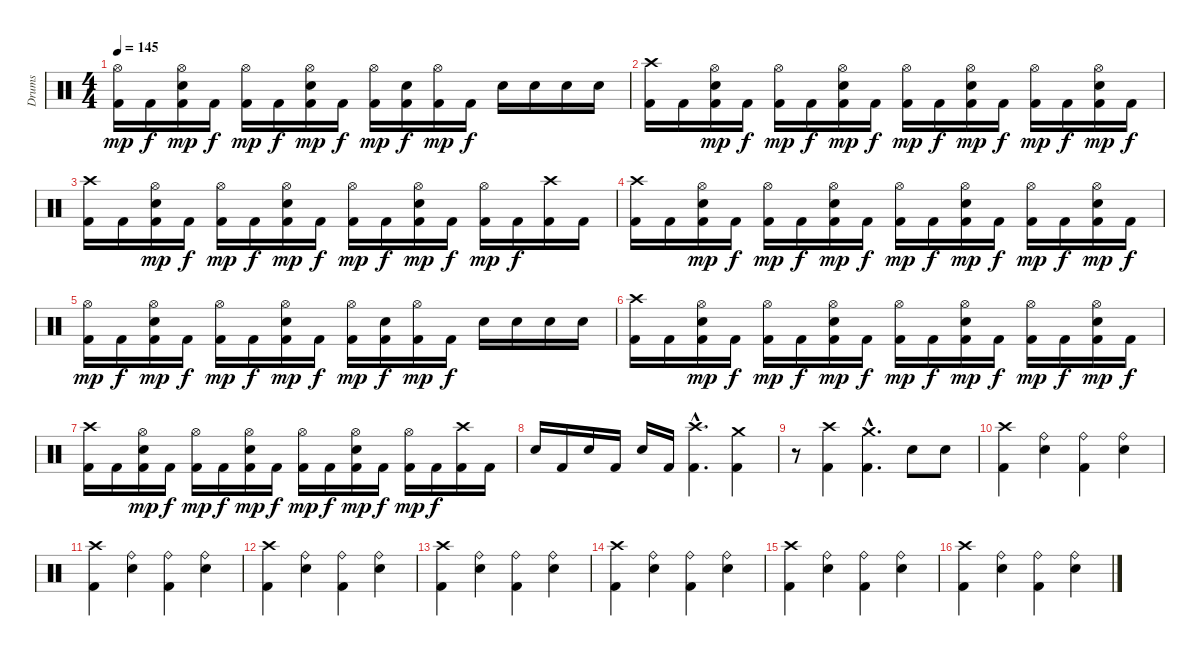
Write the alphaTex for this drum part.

\track ("Drums" "Drums") {instrument percussion}
\staff {score}
\articulation defaults
\ts (4 4)
\tempo 145
\clef neutral
\ks c
("Hi-Hat (open)" "Kick (hit) 2").16{dy mp} "Kick (hit) 2".16{dy f} ("Hi-Hat (open)" "Snare (hit) 2" "Kick (hit) 2").16{dy mp} "Kick (hit) 2".16{dy f} ("Hi-Hat (open)" "Kick (hit) 2").16{dy mp} "Kick (hit) 2".16{dy f} ("Hi-Hat (open)" "Snare (hit) 2" "Kick (hit) 2").16{dy mp} "Kick (hit) 2".16{dy f} ("Hi-Hat (open)" "Kick (hit) 2").16{dy mp} ("Snare (hit) 2" "Kick (hit) 2").16{dy f} ("Hi-Hat (open)" "Kick (hit) 2").16{dy mp} "Kick (hit) 2".16{dy f} "Snare (hit) 2".16 "Snare (hit) 2".16 "Snare (hit) 2".16 "Snare (hit) 2".16 |
("Crash high (hit)" "Kick (hit) 2").16 "Kick (hit) 2".16 ("Hi-Hat (open)" "Snare (hit) 2" "Kick (hit) 2").16{dy mp} "Kick (hit) 2".16{dy f} ("Hi-Hat (open)" "Kick (hit) 2").16{dy mp} "Kick (hit) 2".16{dy f} ("Hi-Hat (open)" "Snare (hit) 2" "Kick (hit) 2").16{dy mp} "Kick (hit) 2".16{dy f} ("Hi-Hat (open)" "Kick (hit) 2").16{dy mp} "Kick (hit) 2".16{dy f} ("Hi-Hat (open)" "Snare (hit) 2" "Kick (hit) 2").16{dy mp} "Kick (hit) 2".16{dy f} ("Hi-Hat (open)" "Kick (hit) 2").16{dy mp} "Kick (hit) 2".16{dy f} ("Hi-Hat (open)" "Snare (hit) 2" "Kick (hit) 2").16{dy mp} "Kick (hit) 2".16{dy f} |
("Crash high (hit)" "Kick (hit) 2").16 "Kick (hit) 2".16 ("Hi-Hat (open)" "Snare (hit) 2" "Kick (hit) 2").16{dy mp} "Kick (hit) 2".16{dy f} ("Hi-Hat (open)" "Kick (hit) 2").16{dy mp} "Kick (hit) 2".16{dy f} ("Hi-Hat (open)" "Snare (hit) 2" "Kick (hit) 2").16{dy mp} "Kick (hit) 2".16{dy f} ("Hi-Hat (open)" "Kick (hit) 2").16{dy mp} "Kick (hit) 2".16{dy f} ("Hi-Hat (open)" "Snare (hit) 2" "Kick (hit) 2").16{dy mp} "Kick (hit) 2".16{dy f} ("Hi-Hat (open)" "Kick (hit) 2").16{dy mp} "Kick (hit) 2".16{dy f} ("Crash high (hit)" "Kick (hit) 2").16 "Kick (hit) 2".16 |
("Crash high (hit)" "Kick (hit) 2").16 "Kick (hit) 2".16 ("Hi-Hat (open)" "Snare (hit) 2" "Kick (hit) 2").16{dy mp} "Kick (hit) 2".16{dy f} ("Hi-Hat (open)" "Kick (hit) 2").16{dy mp} "Kick (hit) 2".16{dy f} ("Hi-Hat (open)" "Snare (hit) 2" "Kick (hit) 2").16{dy mp} "Kick (hit) 2".16{dy f} ("Hi-Hat (open)" "Kick (hit) 2").16{dy mp} "Kick (hit) 2".16{dy f} ("Hi-Hat (open)" "Snare (hit) 2" "Kick (hit) 2").16{dy mp} "Kick (hit) 2".16{dy f} ("Hi-Hat (open)" "Kick (hit) 2").16{dy mp} "Kick (hit) 2".16{dy f} ("Hi-Hat (open)" "Snare (hit) 2" "Kick (hit) 2").16{dy mp} "Kick (hit) 2".16{dy f} |
("Hi-Hat (open)" "Kick (hit) 2").16{dy mp} "Kick (hit) 2".16{dy f} ("Hi-Hat (open)" "Snare (hit) 2" "Kick (hit) 2").16{dy mp} "Kick (hit) 2".16{dy f} ("Hi-Hat (open)" "Kick (hit) 2").16{dy mp} "Kick (hit) 2".16{dy f} ("Hi-Hat (open)" "Snare (hit) 2" "Kick (hit) 2").16{dy mp} "Kick (hit) 2".16{dy f} ("Hi-Hat (open)" "Kick (hit) 2").16{dy mp} ("Snare (hit) 2" "Kick (hit) 2").16{dy f} ("Hi-Hat (open)" "Kick (hit) 2").16{dy mp} "Kick (hit) 2".16{dy f} "Snare (hit) 2".16 "Snare (hit) 2".16 "Snare (hit) 2".16 "Snare (hit) 2".16 |
("Crash high (hit)" "Kick (hit) 2").16 "Kick (hit) 2".16 ("Hi-Hat (open)" "Snare (hit) 2" "Kick (hit) 2").16{dy mp} "Kick (hit) 2".16{dy f} ("Hi-Hat (open)" "Kick (hit) 2").16{dy mp} "Kick (hit) 2".16{dy f} ("Hi-Hat (open)" "Snare (hit) 2" "Kick (hit) 2").16{dy mp} "Kick (hit) 2".16{dy f} ("Hi-Hat (open)" "Kick (hit) 2").16{dy mp} "Kick (hit) 2".16{dy f} ("Hi-Hat (open)" "Snare (hit) 2" "Kick (hit) 2").16{dy mp} "Kick (hit) 2".16{dy f} ("Hi-Hat (open)" "Kick (hit) 2").16{dy mp} "Kick (hit) 2".16{dy f} ("Hi-Hat (open)" "Snare (hit) 2" "Kick (hit) 2").16{dy mp} "Kick (hit) 2".16{dy f} |
("Crash high (hit)" "Kick (hit) 2").16 "Kick (hit) 2".16 ("Hi-Hat (open)" "Snare (hit) 2" "Kick (hit) 2").16{dy mp} "Kick (hit) 2".16{dy f} ("Hi-Hat (open)" "Kick (hit) 2").16{dy mp} "Kick (hit) 2".16{dy f} ("Hi-Hat (open)" "Snare (hit) 2" "Kick (hit) 2").16{dy mp} "Kick (hit) 2".16{dy f} ("Hi-Hat (open)" "Kick (hit) 2").16{dy mp} "Kick (hit) 2".16{dy f} ("Hi-Hat (open)" "Snare (hit) 2" "Kick (hit) 2").16{dy mp} "Kick (hit) 2".16{dy f} ("Hi-Hat (open)" "Kick (hit) 2").16{dy mp} "Kick (hit) 2".16{dy f} ("Crash high (hit)" "Kick (hit) 2").16 "Kick (hit) 2".16 |
"Snare (hit) 2".16 "Kick (hit) 2".16 "Snare (hit) 2".16 "Kick (hit) 2".16 "Snare (hit) 2".16 "Kick (hit) 2".16 ("Crash high (hit)"{hac} "Kick (hit) 2"{hac}).4{d} ("Crash medium (hit)" "Kick (hit) 2").4 |
r.8 ("Crash high (hit)" "Kick (hit) 2").4 ("Crash medium (hit)"{hac} "Kick (hit) 2"{hac}).4{d} "Snare (hit) 2".8 "Snare (hit) 2".8 |
("Crash high (hit)" "Kick (hit) 2").4 ("Ride (bell)" "Snare (hit) 2").4 ("Ride (bell)" "Kick (hit) 2").4 ("Ride (bell)" "Snare (hit) 2").4 |
("Crash high (hit)" "Kick (hit) 2").4 ("Ride (bell)" "Snare (hit) 2").4 ("Ride (bell)" "Kick (hit) 2").4 ("Ride (bell)" "Snare (hit) 2").4 |
("Crash high (hit)" "Kick (hit) 2").4 ("Ride (bell)" "Snare (hit) 2").4 ("Ride (bell)" "Kick (hit) 2").4 ("Ride (bell)" "Snare (hit) 2").4 |
("Crash high (hit)" "Kick (hit) 2").4 ("Ride (bell)" "Snare (hit) 2").4 ("Ride (bell)" "Kick (hit) 2").4 ("Ride (bell)" "Snare (hit) 2").4 |
("Crash high (hit)" "Kick (hit) 2").4 ("Ride (bell)" "Snare (hit) 2").4 ("Ride (bell)" "Kick (hit) 2").4 ("Ride (bell)" "Snare (hit) 2").4 |
("Crash high (hit)" "Kick (hit) 2").4 ("Ride (bell)" "Snare (hit) 2").4 ("Ride (bell)" "Kick (hit) 2").4 ("Ride (bell)" "Snare (hit) 2").4 |
("Crash high (hit)" "Kick (hit) 2").4 ("Ride (bell)" "Snare (hit) 2").4 ("Ride (bell)" "Kick (hit) 2").4 ("Ride (bell)" "Snare (hit) 2").4
